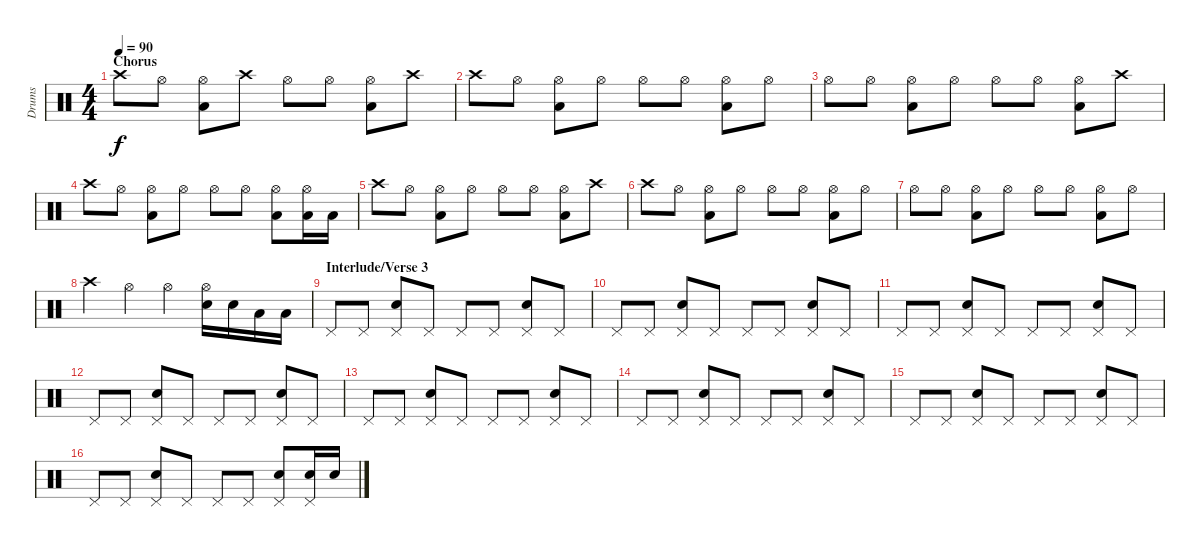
\track ("Drums" "Drums") {instrument percussion}
\staff {score}
\articulation defaults
\ts (4 4)
\section ("" "Chorus")
\tempo 90
\clef neutral
\ks c "Crash high (hit)".8{dy f volume 16} "Hi-Hat (open)".8
("Hi-Hat (open)" "Low Floor Tom (hit)").8 "Crash high (hit)".8 "Hi-Hat (open)".8 "Hi-Hat (open)".8 ("Hi-Hat (open)" "Low Floor Tom (hit)").8 "Crash high (hit)".8 |
"Crash high (hit)".8 "Hi-Hat (open)".8 ("Hi-Hat (open)" "Low Floor Tom (hit)").8 "Hi-Hat (open)".8 "Hi-Hat (open)".8 "Hi-Hat (open)".8 ("Hi-Hat (open)" "Low Floor Tom (hit)").8 "Hi-Hat (open)".8 |
"Hi-Hat (open)".8 "Hi-Hat (open)".8 ("Hi-Hat (open)" "Low Floor Tom (hit)").8 "Hi-Hat (open)".8 "Hi-Hat (open)".8 "Hi-Hat (open)".8 ("Hi-Hat (open)" "Low Floor Tom (hit)").8 "Crash high (hit)".8 |
"Crash high (hit)".8 "Hi-Hat (open)".8 ("Hi-Hat (open)" "Low Floor Tom (hit)").8 "Hi-Hat (open)".8 "Hi-Hat (open)".8 "Hi-Hat (open)".8 ("Hi-Hat (open)" "Low Floor Tom (hit)").8 ("Hi-Hat (open)" "Low Floor Tom (hit)").16 "Low Floor Tom (hit)".16 |
"Crash high (hit)".8 "Hi-Hat (open)".8 ("Hi-Hat (open)" "Low Floor Tom (hit)").8 "Hi-Hat (open)".8 "Hi-Hat (open)".8 "Hi-Hat (open)".8 ("Hi-Hat (open)" "Low Floor Tom (hit)").8 "Crash high (hit)".8 |
"Crash high (hit)".8 "Hi-Hat (open)".8 ("Hi-Hat (open)" "Low Floor Tom (hit)").8 "Hi-Hat (open)".8 "Hi-Hat (open)".8 "Hi-Hat (open)".8 ("Hi-Hat (open)" "Low Floor Tom (hit)").8 "Hi-Hat (open)".8 |
"Hi-Hat (open)".8 "Hi-Hat (open)".8 ("Hi-Hat (open)" "Low Floor Tom (hit)").8 "Hi-Hat (open)".8 "Hi-Hat (open)".8 "Hi-Hat (open)".8 ("Hi-Hat (open)" "Low Floor Tom (hit)").8 "Hi-Hat (open)".8 |
"Crash high (hit)".4 "Hi-Hat (open)".4{volume 13} "Hi-Hat (open)".4 ("Hi-Hat (open)" "Electric Snare (hit)").16 "Electric Snare (hit)".16 "Low Floor Tom (hit)".16 "Low Floor Tom (hit)".16 |
\section ("" "Interlude/Verse 3")
"Pedal Hi-Hat (hit)".8 "Pedal Hi-Hat (hit)".8 ("Pedal Hi-Hat (hit)" "Electric Snare (hit)").8 "Pedal Hi-Hat (hit)".8 "Pedal Hi-Hat (hit)".8 "Pedal Hi-Hat (hit)".8 ("Pedal Hi-Hat (hit)" "Electric Snare (hit)").8 "Pedal Hi-Hat (hit)".8 |
"Pedal Hi-Hat (hit)".8 "Pedal Hi-Hat (hit)".8 ("Pedal Hi-Hat (hit)" "Electric Snare (hit)").8 "Pedal Hi-Hat (hit)".8 "Pedal Hi-Hat (hit)".8 "Pedal Hi-Hat (hit)".8 ("Pedal Hi-Hat (hit)" "Electric Snare (hit)").8 "Pedal Hi-Hat (hit)".8 |
"Pedal Hi-Hat (hit)".8 "Pedal Hi-Hat (hit)".8 ("Pedal Hi-Hat (hit)" "Electric Snare (hit)").8 "Pedal Hi-Hat (hit)".8 "Pedal Hi-Hat (hit)".8 "Pedal Hi-Hat (hit)".8 ("Pedal Hi-Hat (hit)" "Electric Snare (hit)").8 "Pedal Hi-Hat (hit)".8 |
"Pedal Hi-Hat (hit)".8 "Pedal Hi-Hat (hit)".8 ("Pedal Hi-Hat (hit)" "Electric Snare (hit)").8 "Pedal Hi-Hat (hit)".8 "Pedal Hi-Hat (hit)".8 "Pedal Hi-Hat (hit)".8 ("Pedal Hi-Hat (hit)" "Electric Snare (hit)").8 "Pedal Hi-Hat (hit)".8 |
"Pedal Hi-Hat (hit)".8 "Pedal Hi-Hat (hit)".8 ("Pedal Hi-Hat (hit)" "Electric Snare (hit)").8 "Pedal Hi-Hat (hit)".8 "Pedal Hi-Hat (hit)".8 "Pedal Hi-Hat (hit)".8 ("Pedal Hi-Hat (hit)" "Electric Snare (hit)").8 "Pedal Hi-Hat (hit)".8 |
"Pedal Hi-Hat (hit)".8 "Pedal Hi-Hat (hit)".8 ("Pedal Hi-Hat (hit)" "Electric Snare (hit)").8 "Pedal Hi-Hat (hit)".8 "Pedal Hi-Hat (hit)".8 "Pedal Hi-Hat (hit)".8 ("Pedal Hi-Hat (hit)" "Electric Snare (hit)").8 "Pedal Hi-Hat (hit)".8 |
"Pedal Hi-Hat (hit)".8 "Pedal Hi-Hat (hit)".8 ("Pedal Hi-Hat (hit)" "Electric Snare (hit)").8 "Pedal Hi-Hat (hit)".8 "Pedal Hi-Hat (hit)".8 "Pedal Hi-Hat (hit)".8 ("Pedal Hi-Hat (hit)" "Electric Snare (hit)").8 "Pedal Hi-Hat (hit)".8 |
"Pedal Hi-Hat (hit)".8 "Pedal Hi-Hat (hit)".8 ("Pedal Hi-Hat (hit)" "Electric Snare (hit)").8 "Pedal Hi-Hat (hit)".8 "Pedal Hi-Hat (hit)".8 "Pedal Hi-Hat (hit)".8 ("Pedal Hi-Hat (hit)" "Electric Snare (hit)").8 ("Pedal Hi-Hat (hit)" "Electric Snare (hit)").16 "Electric Snare (hit)".16
